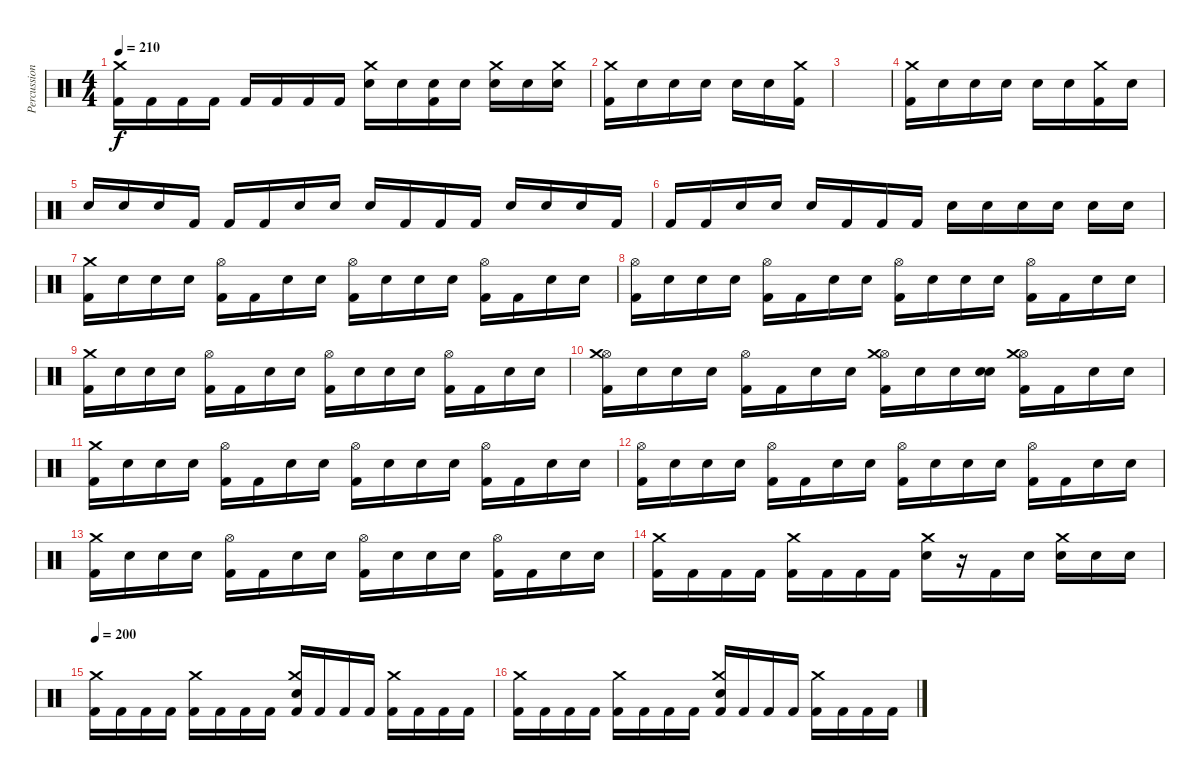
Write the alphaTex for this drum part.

\track ("Percussion" "Percussion") {instrument percussion}
\staff {score}
\articulation defaults
\ts (4 4)
\tempo 210
\clef neutral
\ks c
("Kick (hit) 2" "Crash medium (hit)").16{dy f} "Kick (hit) 2".16 "Kick (hit) 2".16 "Kick (hit) 2".16 "Kick (hit) 2".16 "Kick (hit) 2".16 "Kick (hit) 2".16 "Kick (hit) 2".16 ("Snare (hit) 2" "Crash medium (hit)").16 "Snare (hit)".16 ("Kick (hit) 2" "Snare (hit)").16 "Snare (hit)".16 ("Snare (hit) 2" "Crash medium (hit)").16 "Snare (hit)".16 ("Snare (hit) 2" "Crash medium (hit)").16 |
("Kick (hit) 2" "Crash medium (hit)").16 "Snare (hit)".16 "Snare (hit)".16 "Snare (hit)".16 "Snare (hit)".16 "Snare (hit)".16 ("Kick (hit) 2" "Crash medium (hit)").16 |
|
("Crash medium (hit)" "Kick (hit) 2").16 "Snare (hit)".16 "Snare (hit)".16 "Snare (hit)".16 "Snare (hit)".16 "Snare (hit)".16 ("Crash medium (hit)" "Kick (hit) 2").16 "Snare (hit)".16 |
"Snare (hit) 2".16 "Snare (hit) 2".16 "Snare (hit) 2".16 "Kick (hit) 2".16 "Kick (hit) 2".16 "Kick (hit) 2".16 "Snare (hit) 2".16 "Snare (hit) 2".16 "Snare (hit) 2".16 "Kick (hit) 2".16 "Kick (hit) 2".16 "Kick (hit) 2".16 "Snare (hit) 2".16 "Snare (hit) 2".16 "Snare (hit) 2".16 "Kick (hit) 2".16 |
"Kick (hit) 2".16 "Kick (hit) 2".16 "Snare (hit) 2".16 "Snare (hit) 2".16 "Snare (hit) 2".16 "Kick (hit) 2".16 "Kick (hit) 2".16 "Kick (hit) 2".16 "Snare (hit) 2".16 "Snare (hit) 2".16 "Snare (hit) 2".16 "Snare (hit) 2".16 "Snare (hit) 2".16 "Snare (hit) 2".16 |
("Kick (hit) 2" "Crash medium (hit)").16 "Snare (hit)".16 "Snare (hit) 2".16 "Snare (hit)".16 ("Kick (hit) 2" "Hi-Hat (open)").16 "Kick (hit) 2".16 "Snare (hit) 2".16 "Snare (hit)".16 ("Kick (hit) 2" "Hi-Hat (open)").16 "Snare (hit)".16 "Snare (hit) 2".16 "Snare (hit)".16 ("Kick (hit) 2" "Hi-Hat (open)").16 "Kick (hit) 2".16 "Snare (hit) 2".16 "Snare (hit)".16 |
("Kick (hit) 2" "Hi-Hat (open)").16 "Snare (hit)".16 "Snare (hit) 2".16 "Snare (hit)".16 ("Kick (hit) 2" "Hi-Hat (open)").16 "Kick (hit) 2".16 "Snare (hit) 2".16 "Snare (hit)".16 ("Kick (hit) 2" "Hi-Hat (open)").16 "Snare (hit)".16 "Snare (hit) 2".16 "Snare (hit)".16 ("Kick (hit) 2" "Hi-Hat (open)").16 "Kick (hit) 2".16 "Snare (hit) 2".16 "Snare (hit)".16 |
("Kick (hit) 2" "Crash medium (hit)").16 "Snare (hit)".16 "Snare (hit) 2".16 "Snare (hit)".16 ("Kick (hit) 2" "Hi-Hat (open)").16 "Kick (hit) 2".16 "Snare (hit) 2".16 "Snare (hit)".16 ("Kick (hit) 2" "Hi-Hat (open)").16 "Snare (hit)".16 "Snare (hit) 2".16 "Snare (hit)".16 ("Kick (hit) 2" "Hi-Hat (open)").16 "Kick (hit) 2".16 "Snare (hit) 2".16 "Snare (hit)".16 |
("Kick (hit) 2" "Hi-Hat (open)" "Crash medium (hit)").16 "Snare (hit)".16 "Snare (hit) 2".16 "Snare (hit)".16 ("Kick (hit) 2" "Hi-Hat (open)").16 "Kick (hit) 2".16 "Snare (hit) 2".16 "Snare (hit)".16 ("Kick (hit) 2" "Hi-Hat (open)" "Crash medium (hit)").16 "Snare (hit)".16 "Snare (hit) 2".16 ("Snare (hit)" "Snare (hit)").16 ("Kick (hit) 2" "Hi-Hat (open)" "Crash medium (hit)").16 "Kick (hit) 2".16 "Snare (hit) 2".16 "Snare (hit)".16 |
("Kick (hit) 2" "Crash medium (hit)").16 "Snare (hit)".16 "Snare (hit) 2".16 "Snare (hit)".16 ("Kick (hit) 2" "Hi-Hat (open)").16 "Kick (hit) 2".16 "Snare (hit) 2".16 "Snare (hit)".16 ("Kick (hit) 2" "Hi-Hat (open)").16 "Snare (hit)".16 "Snare (hit) 2".16 "Snare (hit)".16 ("Kick (hit) 2" "Hi-Hat (open)").16 "Kick (hit) 2".16 "Snare (hit) 2".16 "Snare (hit)".16 |
("Kick (hit) 2" "Hi-Hat (open)").16 "Snare (hit)".16 "Snare (hit) 2".16 "Snare (hit)".16 ("Kick (hit) 2" "Hi-Hat (open)").16 "Kick (hit) 2".16 "Snare (hit) 2".16 "Snare (hit)".16 ("Kick (hit) 2" "Hi-Hat (open)").16 "Snare (hit)".16 "Snare (hit) 2".16 "Snare (hit)".16 ("Kick (hit) 2" "Hi-Hat (open)").16 "Kick (hit) 2".16 "Snare (hit) 2".16 "Snare (hit)".16 |
("Kick (hit) 2" "Crash medium (hit)").16 "Snare (hit)".16 "Snare (hit) 2".16 "Snare (hit)".16 ("Kick (hit) 2" "Hi-Hat (open)").16 "Kick (hit) 2".16 "Snare (hit) 2".16 "Snare (hit)".16 ("Kick (hit) 2" "Hi-Hat (open)").16 "Snare (hit)".16 "Snare (hit) 2".16 "Snare (hit)".16 ("Kick (hit) 2" "Hi-Hat (open)").16 "Kick (hit) 2".16 "Snare (hit) 2".16 "Snare (hit)".16 |
("Crash medium (hit)" "Kick (hit) 2").16 "Kick (hit) 2".16 "Kick (hit) 2".16 "Kick (hit) 2".16 ("Kick (hit) 2" "Crash medium (hit)").16 "Kick (hit) 2".16 "Kick (hit) 2".16 "Kick (hit) 2".16 ("Snare (hit) 2" "Crash medium (hit)").16 r.16 "Kick (hit) 2".16 "Snare (hit)".16 ("Snare (hit) 2" "Crash medium (hit)").16 "Snare (hit)".16 "Snare (hit) 2".16 |
\tempo 200
("Crash medium (hit)" "Kick (hit) 2").16 "Kick (hit) 2".16 "Kick (hit) 2".16 "Kick (hit) 2".16 ("Crash medium (hit)" "Kick (hit) 2").16 "Kick (hit) 2".16 "Kick (hit) 2".16 "Kick (hit) 2".16 ("Snare (hit) 2" "Crash medium (hit)" "Kick (hit) 2").16 "Kick (hit) 2".16 "Kick (hit) 2".16 "Kick (hit) 2".16 ("Crash medium (hit)" "Kick (hit) 2").16 "Kick (hit) 2".16 "Kick (hit) 2".16 "Kick (hit) 2".16 |
("Crash medium (hit)" "Kick (hit) 2").16 "Kick (hit) 2".16 "Kick (hit) 2".16 "Kick (hit) 2".16 ("Crash medium (hit)" "Kick (hit) 2").16 "Kick (hit) 2".16 "Kick (hit) 2".16 "Kick (hit) 2".16 ("Snare (hit) 2" "Crash medium (hit)" "Kick (hit) 2").16 "Kick (hit) 2".16 "Kick (hit) 2".16 "Kick (hit) 2".16 ("Crash medium (hit)" "Kick (hit) 2").16 "Kick (hit) 2".16 "Kick (hit) 2".16 "Kick (hit) 2".16
